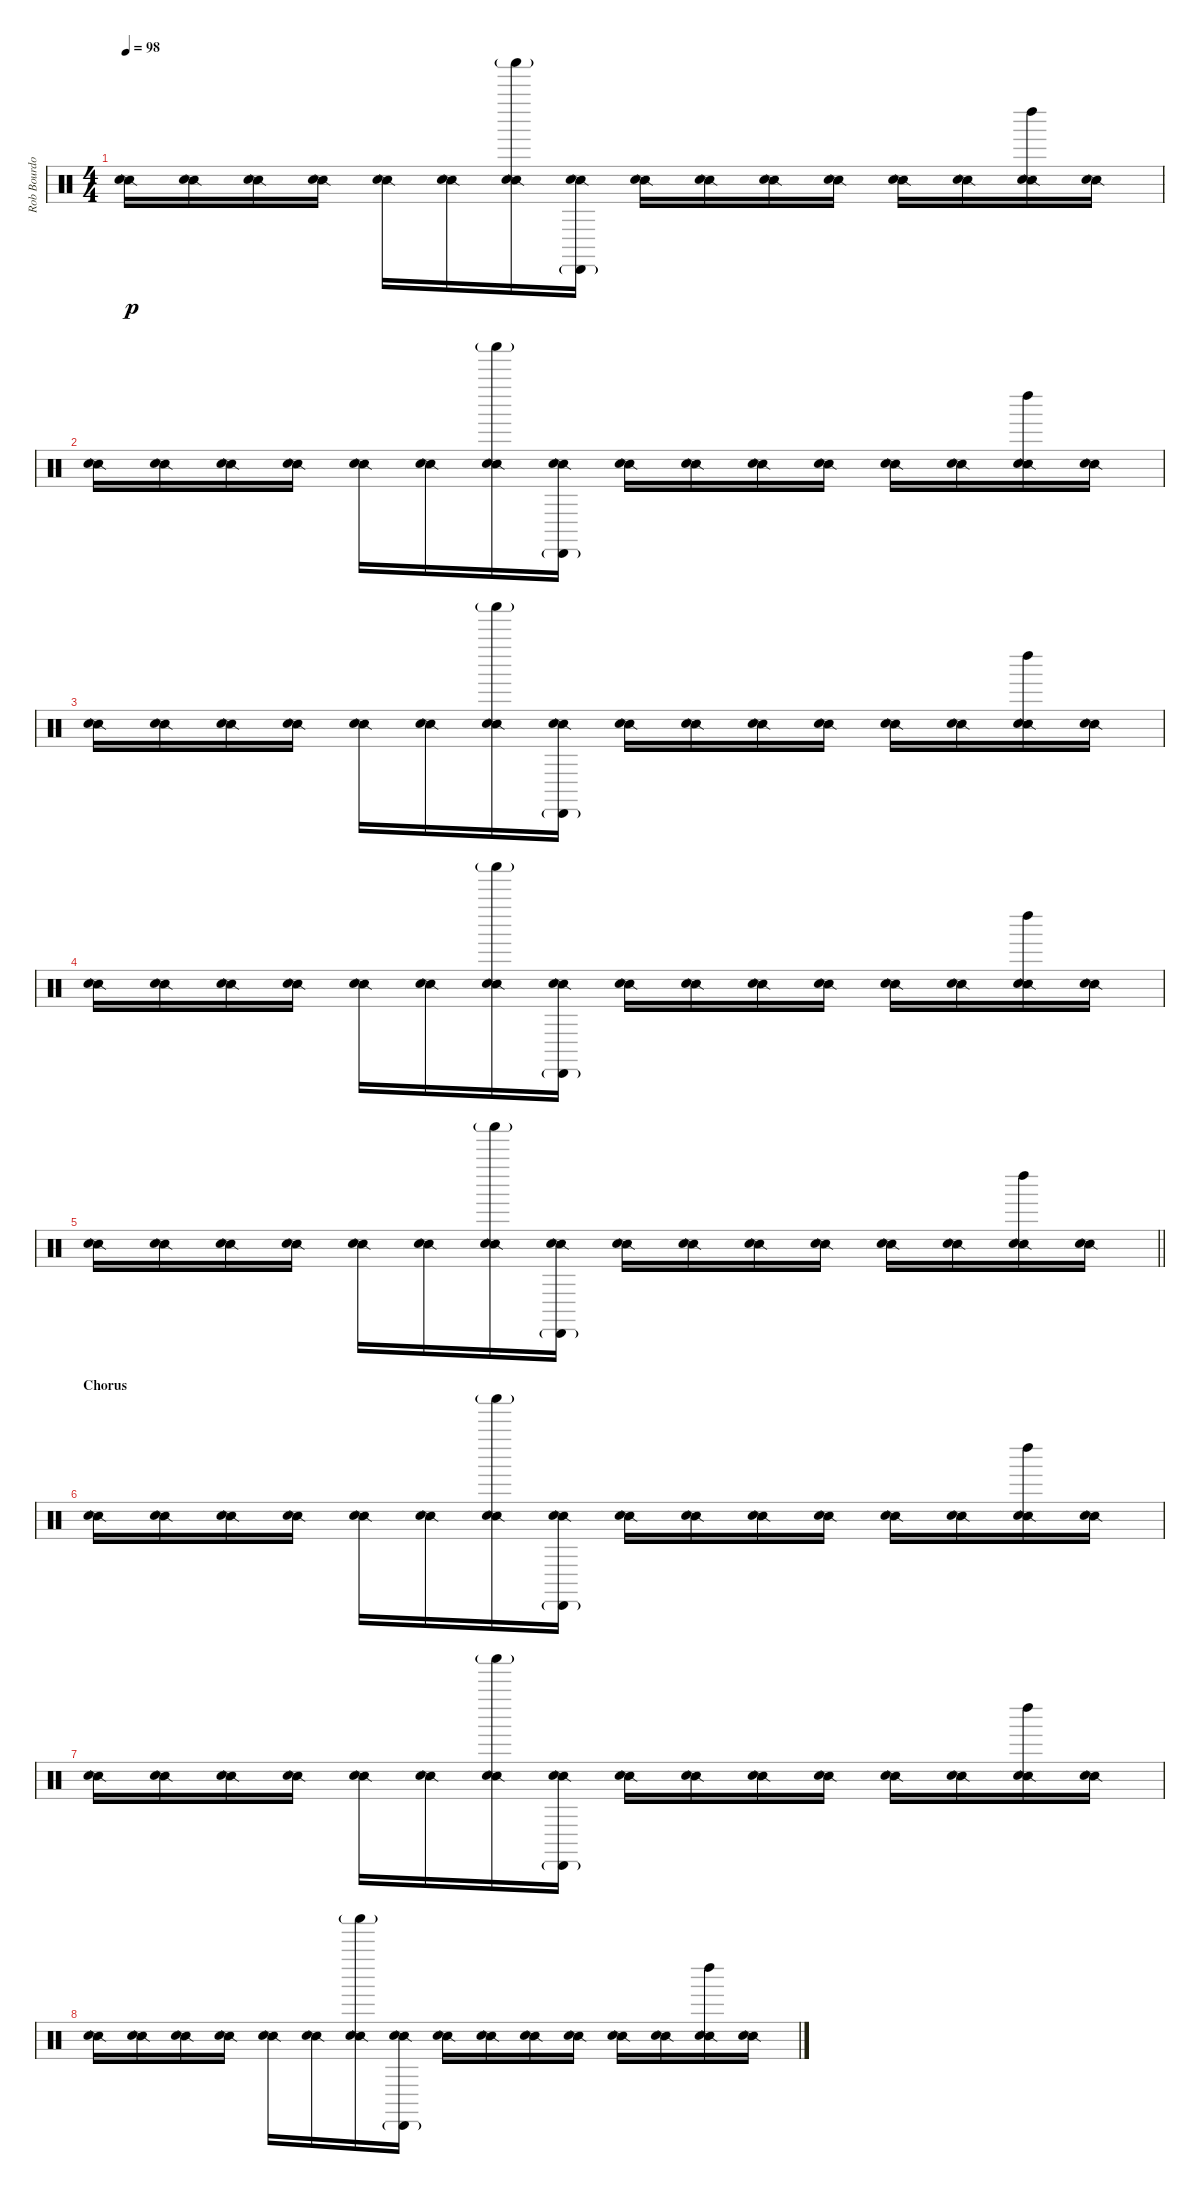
\track ("Rob Bourdon (Drums)" "Rob Bourdo") {instrument percussion}
\staff {score}
\articulation defaults
\ts (4 4)
\tempo 98
\clef neutral
\ks c
("Snare (side stick) 2" "Hand Clap (hit)").16{dy p} ("Snare (side stick) 2" "Hand Clap (hit)").16 ("Snare (side stick) 2" "Hand Clap (hit)").16 ("Snare (side stick) 2" "Hand Clap (hit)").16 ("Snare (side stick) 2" "Hand Clap (hit)").16 ("Snare (side stick) 2" "Hand Clap (hit)").16 ("Shaker (hit)"{g} "Snare (side stick) 2" "Hand Clap (hit)").16 ("Cabasa (hit)"{g} "Snare (side stick) 2" "Hand Clap (hit)").16 ("Snare (side stick) 2" "Hand Clap (hit)").16 ("Snare (side stick) 2" "Hand Clap (hit)").16 ("Snare (side stick) 2" "Hand Clap (hit)").16 ("Snare (side stick) 2" "Hand Clap (hit)").16 ("Snare (side stick) 2" "Hand Clap (hit)").16 ("Snare (side stick) 2" "Hand Clap (hit)").16 ("Left Maraca (hit)" "Snare (side stick) 2" "Hand Clap (hit)").16 ("Snare (side stick) 2" "Hand Clap (hit)").16 |
("Snare (side stick) 2" "Hand Clap (hit)").16 ("Snare (side stick) 2" "Hand Clap (hit)").16 ("Snare (side stick) 2" "Hand Clap (hit)").16 ("Snare (side stick) 2" "Hand Clap (hit)").16 ("Snare (side stick) 2" "Hand Clap (hit)").16 ("Snare (side stick) 2" "Hand Clap (hit)").16 ("Shaker (hit)"{g} "Snare (side stick) 2" "Hand Clap (hit)").16 ("Cabasa (hit)"{g} "Snare (side stick) 2" "Hand Clap (hit)").16 ("Snare (side stick) 2" "Hand Clap (hit)").16 ("Snare (side stick) 2" "Hand Clap (hit)").16 ("Snare (side stick) 2" "Hand Clap (hit)").16 ("Snare (side stick) 2" "Hand Clap (hit)").16 ("Snare (side stick) 2" "Hand Clap (hit)").16 ("Snare (side stick) 2" "Hand Clap (hit)").16 ("Left Maraca (hit)" "Snare (side stick) 2" "Hand Clap (hit)").16 ("Snare (side stick) 2" "Hand Clap (hit)").16 |
("Snare (side stick) 2" "Hand Clap (hit)").16 ("Snare (side stick) 2" "Hand Clap (hit)").16 ("Snare (side stick) 2" "Hand Clap (hit)").16 ("Snare (side stick) 2" "Hand Clap (hit)").16 ("Snare (side stick) 2" "Hand Clap (hit)").16 ("Snare (side stick) 2" "Hand Clap (hit)").16 ("Shaker (hit)"{g} "Snare (side stick) 2" "Hand Clap (hit)").16 ("Cabasa (hit)"{g} "Snare (side stick) 2" "Hand Clap (hit)").16 ("Snare (side stick) 2" "Hand Clap (hit)").16 ("Snare (side stick) 2" "Hand Clap (hit)").16 ("Snare (side stick) 2" "Hand Clap (hit)").16 ("Snare (side stick) 2" "Hand Clap (hit)").16 ("Snare (side stick) 2" "Hand Clap (hit)").16 ("Snare (side stick) 2" "Hand Clap (hit)").16 ("Left Maraca (hit)" "Snare (side stick) 2" "Hand Clap (hit)").16 ("Snare (side stick) 2" "Hand Clap (hit)").16 |
("Snare (side stick) 2" "Hand Clap (hit)").16 ("Snare (side stick) 2" "Hand Clap (hit)").16 ("Snare (side stick) 2" "Hand Clap (hit)").16 ("Snare (side stick) 2" "Hand Clap (hit)").16 ("Snare (side stick) 2" "Hand Clap (hit)").16 ("Snare (side stick) 2" "Hand Clap (hit)").16 ("Shaker (hit)"{g} "Snare (side stick) 2" "Hand Clap (hit)").16 ("Cabasa (hit)"{g} "Snare (side stick) 2" "Hand Clap (hit)").16 ("Snare (side stick) 2" "Hand Clap (hit)").16 ("Snare (side stick) 2" "Hand Clap (hit)").16 ("Snare (side stick) 2" "Hand Clap (hit)").16 ("Snare (side stick) 2" "Hand Clap (hit)").16 ("Snare (side stick) 2" "Hand Clap (hit)").16 ("Snare (side stick) 2" "Hand Clap (hit)").16 ("Left Maraca (hit)" "Snare (side stick) 2" "Hand Clap (hit)").16 ("Snare (side stick) 2" "Hand Clap (hit)").16 |
\barLineRight lightlight
("Snare (side stick) 2" "Hand Clap (hit)").16 ("Snare (side stick) 2" "Hand Clap (hit)").16 ("Snare (side stick) 2" "Hand Clap (hit)").16 ("Snare (side stick) 2" "Hand Clap (hit)").16 ("Snare (side stick) 2" "Hand Clap (hit)").16 ("Snare (side stick) 2" "Hand Clap (hit)").16 ("Shaker (hit)"{g} "Snare (side stick) 2" "Hand Clap (hit)").16 ("Cabasa (hit)"{g} "Snare (side stick) 2" "Hand Clap (hit)").16 ("Snare (side stick) 2" "Hand Clap (hit)").16 ("Snare (side stick) 2" "Hand Clap (hit)").16 ("Snare (side stick) 2" "Hand Clap (hit)").16 ("Snare (side stick) 2" "Hand Clap (hit)").16 ("Snare (side stick) 2" "Hand Clap (hit)").16 ("Snare (side stick) 2" "Hand Clap (hit)").16 ("Left Maraca (hit)" "Snare (side stick) 2" "Hand Clap (hit)").16 ("Snare (side stick) 2" "Hand Clap (hit)").16 |
\section ("" "Chorus")
("Snare (side stick) 2" "Hand Clap (hit)").16 ("Snare (side stick) 2" "Hand Clap (hit)").16 ("Snare (side stick) 2" "Hand Clap (hit)").16 ("Snare (side stick) 2" "Hand Clap (hit)").16 ("Snare (side stick) 2" "Hand Clap (hit)").16 ("Snare (side stick) 2" "Hand Clap (hit)").16 ("Shaker (hit)"{g} "Snare (side stick) 2" "Hand Clap (hit)").16 ("Cabasa (hit)"{g} "Snare (side stick) 2" "Hand Clap (hit)").16 ("Snare (side stick) 2" "Hand Clap (hit)").16 ("Snare (side stick) 2" "Hand Clap (hit)").16 ("Snare (side stick) 2" "Hand Clap (hit)").16 ("Snare (side stick) 2" "Hand Clap (hit)").16 ("Snare (side stick) 2" "Hand Clap (hit)").16 ("Snare (side stick) 2" "Hand Clap (hit)").16 ("Left Maraca (hit)" "Snare (side stick) 2" "Hand Clap (hit)").16 ("Snare (side stick) 2" "Hand Clap (hit)").16 |
("Snare (side stick) 2" "Hand Clap (hit)").16 ("Snare (side stick) 2" "Hand Clap (hit)").16 ("Snare (side stick) 2" "Hand Clap (hit)").16 ("Snare (side stick) 2" "Hand Clap (hit)").16 ("Snare (side stick) 2" "Hand Clap (hit)").16 ("Snare (side stick) 2" "Hand Clap (hit)").16 ("Shaker (hit)"{g} "Snare (side stick) 2" "Hand Clap (hit)").16 ("Cabasa (hit)"{g} "Snare (side stick) 2" "Hand Clap (hit)").16 ("Snare (side stick) 2" "Hand Clap (hit)").16 ("Snare (side stick) 2" "Hand Clap (hit)").16 ("Snare (side stick) 2" "Hand Clap (hit)").16 ("Snare (side stick) 2" "Hand Clap (hit)").16 ("Snare (side stick) 2" "Hand Clap (hit)").16 ("Snare (side stick) 2" "Hand Clap (hit)").16 ("Left Maraca (hit)" "Snare (side stick) 2" "Hand Clap (hit)").16 ("Snare (side stick) 2" "Hand Clap (hit)").16 |
("Snare (side stick) 2" "Hand Clap (hit)").16 ("Snare (side stick) 2" "Hand Clap (hit)").16 ("Snare (side stick) 2" "Hand Clap (hit)").16 ("Snare (side stick) 2" "Hand Clap (hit)").16 ("Snare (side stick) 2" "Hand Clap (hit)").16 ("Snare (side stick) 2" "Hand Clap (hit)").16 ("Shaker (hit)"{g} "Snare (side stick) 2" "Hand Clap (hit)").16 ("Cabasa (hit)"{g} "Snare (side stick) 2" "Hand Clap (hit)").16 ("Snare (side stick) 2" "Hand Clap (hit)").16 ("Snare (side stick) 2" "Hand Clap (hit)").16 ("Snare (side stick) 2" "Hand Clap (hit)").16 ("Snare (side stick) 2" "Hand Clap (hit)").16 ("Snare (side stick) 2" "Hand Clap (hit)").16 ("Snare (side stick) 2" "Hand Clap (hit)").16 ("Left Maraca (hit)" "Snare (side stick) 2" "Hand Clap (hit)").16 ("Snare (side stick) 2" "Hand Clap (hit)").16
